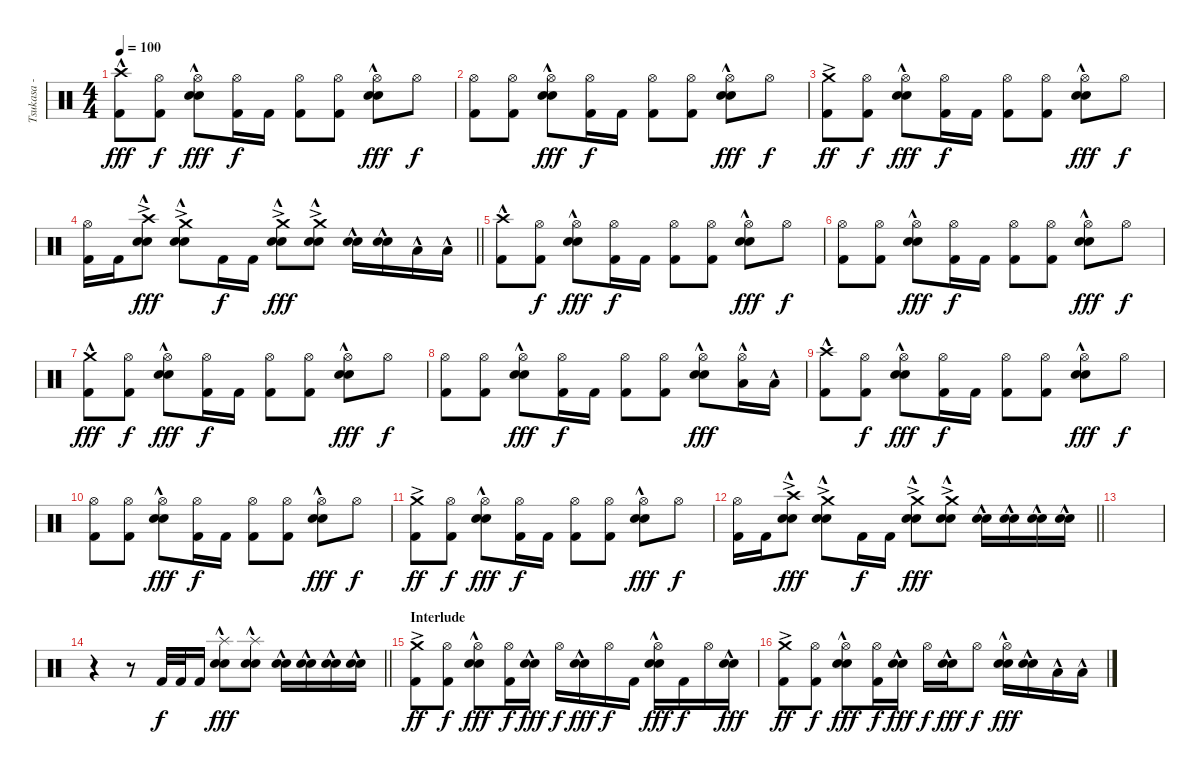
\track ("Tsukasa - Drums" "Tsukasa - ") {instrument percussion}
\staff {score}
\articulation defaults
\ts (4 4)
\tempo 100
\clef neutral
\ks c
("Crash high (hit)"{hac} "Kick (hit) 2").8{dy fff} ("Hi-Hat (open)" "Kick (hit) 2").8{dy f} ("Hi-Hat (open)" "Electric Snare (hit)"{hac} "Snare (hit) 2"{hac}).8{dy fff} ("Hi-Hat (open)" "Kick (hit) 2").16{dy f} "Kick (hit) 2".16 ("Hi-Hat (open)" "Kick (hit) 2").8 ("Hi-Hat (open)" "Kick (hit) 2").8 ("Hi-Hat (open)" "Electric Snare (hit)"{hac} "Snare (hit) 2"{hac}).8{dy fff} "Hi-Hat (open)".8{dy f} |
("Hi-Hat (open)" "Kick (hit) 2").8 ("Hi-Hat (open)" "Kick (hit) 2").8 ("Hi-Hat (open)" "Electric Snare (hit)"{hac} "Snare (hit) 2"{hac}).8{dy fff} ("Hi-Hat (open)" "Kick (hit) 2").16{dy f} "Kick (hit) 2".16 ("Hi-Hat (open)" "Kick (hit) 2").8 ("Hi-Hat (open)" "Kick (hit) 2").8 ("Hi-Hat (open)" "Electric Snare (hit)"{hac} "Snare (hit) 2"{hac}).8{dy fff} "Hi-Hat (open)".8{dy f} |
("Crash medium (hit)"{ac} "Kick (hit) 2").8{dy ff} ("Hi-Hat (open)" "Kick (hit) 2").8{dy f} ("Hi-Hat (open)" "Electric Snare (hit)"{hac} "Snare (hit) 2"{hac}).8{dy fff} ("Hi-Hat (open)" "Kick (hit) 2").16{dy f} "Kick (hit) 2".16 ("Hi-Hat (open)" "Kick (hit) 2").8 ("Hi-Hat (open)" "Kick (hit) 2").8 ("Hi-Hat (open)" "Electric Snare (hit)"{hac} "Snare (hit) 2"{hac}).8{dy fff} "Hi-Hat (open)".8{dy f} |
\barLineRight lightlight
("Hi-Hat (open)" "Kick (hit) 2").16 "Kick (hit) 2".16 ("Crash high (hit)"{ac} "Electric Snare (hit)"{hac} "Snare (hit) 2"{hac}).8{dy fff} ("Crash medium (hit)"{ac} "Electric Snare (hit)"{hac} "Snare (hit) 2"{hac}).8 "Kick (hit) 2".16{dy f} "Kick (hit) 2".16 ("Crash medium (hit)"{ac} "Electric Snare (hit)"{hac} "Snare (hit) 2"{hac}).8{dy fff} ("Crash medium (hit)"{ac} "Electric Snare (hit)"{hac} "Snare (hit) 2"{hac}).8 ("Electric Snare (hit)"{hac} "Snare (hit) 2"{hac}).16 ("Electric Snare (hit)"{hac} "Snare (hit) 2"{hac}).16 "Low Tom (hit)"{hac}.16 "Low Tom (hit)"{hac}.16 |
\section ("" "")
("Crash high (hit)"{hac} "Kick (hit) 2").8 ("Hi-Hat (open)" "Kick (hit) 2").8{dy f} ("Hi-Hat (open)" "Electric Snare (hit)"{hac} "Snare (hit) 2"{hac}).8{dy fff} ("Hi-Hat (open)" "Kick (hit) 2").16{dy f} "Kick (hit) 2".16 ("Hi-Hat (open)" "Kick (hit) 2").8 ("Hi-Hat (open)" "Kick (hit) 2").8 ("Hi-Hat (open)" "Electric Snare (hit)"{hac} "Snare (hit) 2"{hac}).8{dy fff} "Hi-Hat (open)".8{dy f} |
("Hi-Hat (open)" "Kick (hit) 2").8 ("Hi-Hat (open)" "Kick (hit) 2").8 ("Hi-Hat (open)" "Electric Snare (hit)"{hac} "Snare (hit) 2"{hac}).8{dy fff} ("Hi-Hat (open)" "Kick (hit) 2").16{dy f} "Kick (hit) 2".16 ("Hi-Hat (open)" "Kick (hit) 2").8 ("Hi-Hat (open)" "Kick (hit) 2").8 ("Hi-Hat (open)" "Electric Snare (hit)"{hac} "Snare (hit) 2"{hac}).8{dy fff} "Hi-Hat (open)".8{dy f} |
("Crash medium (hit)"{hac} "Kick (hit) 2").8{dy fff} ("Hi-Hat (open)" "Kick (hit) 2").8{dy f} ("Hi-Hat (open)" "Electric Snare (hit)"{hac} "Snare (hit) 2"{hac}).8{dy fff} ("Hi-Hat (open)" "Kick (hit) 2").16{dy f} "Kick (hit) 2".16 ("Hi-Hat (open)" "Kick (hit) 2").8 ("Hi-Hat (open)" "Kick (hit) 2").8 ("Hi-Hat (open)" "Electric Snare (hit)"{hac} "Snare (hit) 2"{hac}).8{dy fff} "Hi-Hat (open)".8{dy f} |
("Hi-Hat (open)" "Kick (hit) 2").8 ("Hi-Hat (open)" "Kick (hit) 2").8 ("Hi-Hat (open)" "Electric Snare (hit)"{hac} "Snare (hit) 2"{hac}).8{dy fff} ("Hi-Hat (open)" "Kick (hit) 2").16{dy f} "Kick (hit) 2".16 ("Hi-Hat (open)" "Kick (hit) 2").8 ("Hi-Hat (open)" "Kick (hit) 2").8 ("Hi-Hat (open)" "Electric Snare (hit)"{hac} "Snare (hit) 2"{hac}).8{dy fff} ("Hi-Hat (open)" "Low Tom (hit)"{hac}).16 "Low Tom (hit)"{hac}.16 |
("Crash high (hit)"{hac} "Kick (hit) 2").8 ("Hi-Hat (open)" "Kick (hit) 2").8{dy f} ("Hi-Hat (open)" "Electric Snare (hit)"{hac} "Snare (hit) 2"{hac}).8{dy fff} ("Hi-Hat (open)" "Kick (hit) 2").16{dy f} "Kick (hit) 2".16 ("Hi-Hat (open)" "Kick (hit) 2").8 ("Hi-Hat (open)" "Kick (hit) 2").8 ("Hi-Hat (open)" "Electric Snare (hit)"{hac} "Snare (hit) 2"{hac}).8{dy fff} "Hi-Hat (open)".8{dy f} |
("Hi-Hat (open)" "Kick (hit) 2").8 ("Hi-Hat (open)" "Kick (hit) 2").8 ("Hi-Hat (open)" "Electric Snare (hit)"{hac} "Snare (hit) 2"{hac}).8{dy fff} ("Hi-Hat (open)" "Kick (hit) 2").16{dy f} "Kick (hit) 2".16 ("Hi-Hat (open)" "Kick (hit) 2").8 ("Hi-Hat (open)" "Kick (hit) 2").8 ("Hi-Hat (open)" "Electric Snare (hit)"{hac} "Snare (hit) 2"{hac}).8{dy fff} "Hi-Hat (open)".8{dy f} |
("Crash medium (hit)"{ac} "Kick (hit) 2").8{dy ff} ("Hi-Hat (open)" "Kick (hit) 2").8{dy f} ("Hi-Hat (open)" "Electric Snare (hit)"{hac} "Snare (hit) 2"{hac}).8{dy fff} ("Hi-Hat (open)" "Kick (hit) 2").16{dy f} "Kick (hit) 2".16 ("Hi-Hat (open)" "Kick (hit) 2").8 ("Hi-Hat (open)" "Kick (hit) 2").8 ("Hi-Hat (open)" "Electric Snare (hit)"{hac} "Snare (hit) 2"{hac}).8{dy fff} "Hi-Hat (open)".8{dy f} |
\barLineRight lightlight
("Hi-Hat (open)" "Kick (hit) 2").16 "Kick (hit) 2".16 ("Crash high (hit)"{ac} "Electric Snare (hit)"{hac} "Snare (hit) 2"{hac}).8{dy fff} ("Crash medium (hit)"{ac} "Electric Snare (hit)"{hac} "Snare (hit) 2"{hac}).8 "Kick (hit) 2".16{dy f} "Kick (hit) 2".16 ("Crash medium (hit)"{ac} "Electric Snare (hit)"{hac} "Snare (hit) 2"{hac}).8{dy fff} ("Crash medium (hit)"{ac} "Electric Snare (hit)"{hac} "Snare (hit) 2"{hac}).8 ("Electric Snare (hit)"{hac} "Snare (hit) 2"{hac}).16 ("Electric Snare (hit)"{hac} "Snare (hit) 2"{hac}).16 ("Electric Snare (hit)"{hac} "Snare (hit) 2"{hac}).16 ("Electric Snare (hit)"{hac} "Snare (hit) 2"{hac}).16 |
|
\barLineRight lightlight
r.4 r.8 "Kick (hit) 2".32{dy f} "Kick (hit) 2".32 "Kick (hit) 2".16 ("Splash (hit)"{hac} "Electric Snare (hit)"{hac} "Snare (hit) 2"{hac}).8{dy fff} ("Splash (hit)"{hac} "Electric Snare (hit)"{hac} "Snare (hit) 2"{hac}).8 ("Electric Snare (hit)"{hac} "Snare (hit) 2"{hac}).16 ("Electric Snare (hit)"{hac} "Snare (hit) 2"{hac}).16 ("Electric Snare (hit)"{hac} "Snare (hit) 2"{hac}).16 ("Electric Snare (hit)"{hac} "Snare (hit) 2"{hac}).16 |
\section ("" "Interlude")
("Crash medium (hit)"{ac} "Kick (hit) 2").8{dy ff} ("Hi-Hat (open)" "Kick (hit) 2").8{dy f} ("Hi-Hat (open)" "Electric Snare (hit)"{hac} "Snare (hit) 2"{hac}).8{dy fff} ("Hi-Hat (open)" "Kick (hit) 2").16{dy f} ("Electric Snare (hit)"{hac} "Snare (hit) 2"{hac}).16{dy fff} "Hi-Hat (open)".16{dy f} ("Electric Snare (hit)"{hac} "Snare (hit) 2"{hac}).16{dy fff} "Hi-Hat (open)".16{dy f} "Kick (hit) 2".16 ("Hi-Hat (open)" "Electric Snare (hit)"{hac} "Snare (hit) 2"{hac}).16{dy fff} "Kick (hit) 2".16{dy f} "Hi-Hat (open)".16 ("Electric Snare (hit)"{hac} "Snare (hit) 2"{hac}).16{dy fff} |
("Crash medium (hit)"{ac} "Kick (hit) 2").8{dy ff} ("Hi-Hat (open)" "Kick (hit) 2").8{dy f} ("Hi-Hat (open)" "Electric Snare (hit)"{hac} "Snare (hit) 2"{hac}).8{dy fff} ("Hi-Hat (open)" "Kick (hit) 2").16{dy f} ("Electric Snare (hit)"{hac} "Snare (hit) 2"{hac}).16{dy fff} "Hi-Hat (open)".16{dy f} ("Electric Snare (hit)"{hac} "Snare (hit) 2"{hac}).16{dy fff} "Hi-Hat (open)".8{dy f} ("Hi-Hat (open)" "Electric Snare (hit)"{hac} "Snare (hit) 2"{hac}).16{dy fff} ("Electric Snare (hit)"{hac} "Snare (hit) 2"{hac}).16 "Low Tom (hit)"{hac}.16 "Low Tom (hit)"{hac}.16
